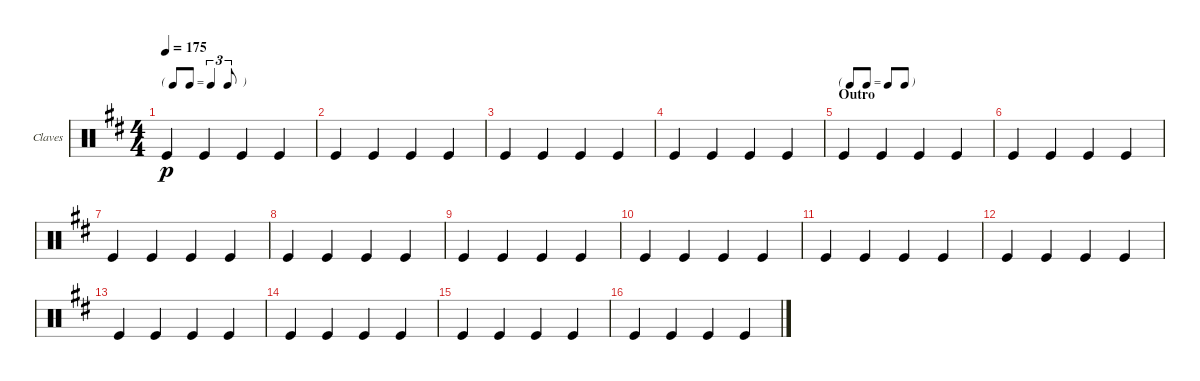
\defaultSystemsLayout 4
\bracketExtendMode groupsimilarinstruments
\firstSystemTrackNameOrientation horizontal
\otherSystemsTrackNameOrientation horizontal
\track ("Claves" "Claves") {instrument percussion}
\staff {score}
\articulation defaults
\ts (4 4)
\tf triplet8th
\tempo 175
\clef neutral
\ks d "Kick (hit)".4{dy p} "Kick (hit)".4 "Kick (hit)".4 "Kick (hit)".4
|
"Kick (hit)".4 "Kick (hit)".4 "Kick (hit)".4 "Kick (hit)".4 |
"Kick (hit)".4 "Kick (hit)".4 "Kick (hit)".4 "Kick (hit)".4 |
"Kick (hit)".4 "Kick (hit)".4 "Kick (hit)".4 "Kick (hit)".4 |
\tf none
\section ("" "Outro")
"Kick (hit)".4 "Kick (hit)".4 "Kick (hit)".4 "Kick (hit)".4 |
"Kick (hit)".4 "Kick (hit)".4 "Kick (hit)".4 "Kick (hit)".4 |
"Kick (hit)".4 "Kick (hit)".4 "Kick (hit)".4 "Kick (hit)".4 |
"Kick (hit)".4 "Kick (hit)".4 "Kick (hit)".4 "Kick (hit)".4 |
"Kick (hit)".4 "Kick (hit)".4 "Kick (hit)".4 "Kick (hit)".4 |
"Kick (hit)".4 "Kick (hit)".4 "Kick (hit)".4 "Kick (hit)".4 |
"Kick (hit)".4 "Kick (hit)".4 "Kick (hit)".4 "Kick (hit)".4 |
"Kick (hit)".4 "Kick (hit)".4 "Kick (hit)".4 "Kick (hit)".4 |
"Kick (hit)".4 "Kick (hit)".4 "Kick (hit)".4 "Kick (hit)".4 |
"Kick (hit)".4 "Kick (hit)".4 "Kick (hit)".4 "Kick (hit)".4 |
"Kick (hit)".4 "Kick (hit)".4 "Kick (hit)".4 "Kick (hit)".4 |
"Kick (hit)".4 "Kick (hit)".4 "Kick (hit)".4 "Kick (hit)".4
